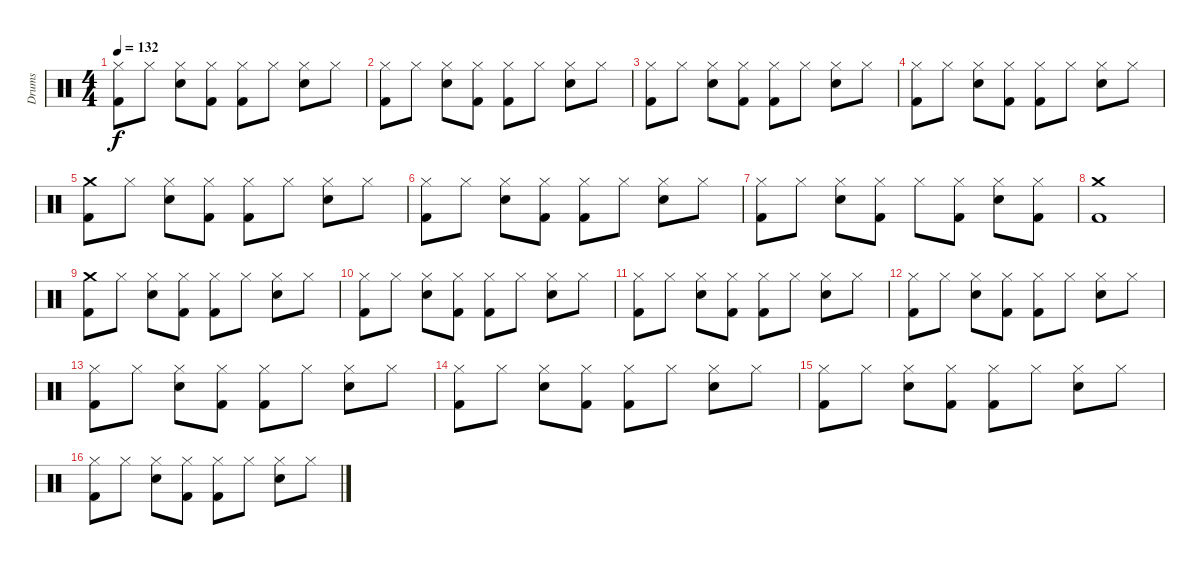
\track ("Drums" "Drums") {instrument percussion}
\staff {score}
\articulation defaults
\ts (4 4)
\tempo 132
\clef neutral
\ks c
("Hi-Hat (closed)" "Kick (hit) 2").8{dy f} "Hi-Hat (closed)".8 ("Hi-Hat (closed)" "Snare (hit) 2").8 ("Hi-Hat (closed)" "Kick (hit) 2").8 ("Hi-Hat (closed)" "Kick (hit) 2").8 "Hi-Hat (closed)".8 ("Hi-Hat (closed)" "Snare (hit) 2").8 "Hi-Hat (closed)".8 |
("Hi-Hat (closed)" "Kick (hit) 2").8 "Hi-Hat (closed)".8 ("Hi-Hat (closed)" "Snare (hit) 2").8 ("Hi-Hat (closed)" "Kick (hit) 2").8 ("Hi-Hat (closed)" "Kick (hit) 2").8 "Hi-Hat (closed)".8 ("Hi-Hat (closed)" "Snare (hit) 2").8 "Hi-Hat (closed)".8 |
("Hi-Hat (closed)" "Kick (hit) 2").8 "Hi-Hat (closed)".8 ("Hi-Hat (closed)" "Snare (hit) 2").8 ("Hi-Hat (closed)" "Kick (hit) 2").8 ("Hi-Hat (closed)" "Kick (hit) 2").8 "Hi-Hat (closed)".8 ("Hi-Hat (closed)" "Snare (hit) 2").8 "Hi-Hat (closed)".8 |
("Hi-Hat (closed)" "Kick (hit) 2").8 "Hi-Hat (closed)".8 ("Hi-Hat (closed)" "Snare (hit) 2").8 ("Hi-Hat (closed)" "Kick (hit) 2").8 ("Hi-Hat (closed)" "Kick (hit) 2").8 "Hi-Hat (closed)".8 ("Hi-Hat (closed)" "Snare (hit) 2").8 "Hi-Hat (closed)".8 |
("Crash medium (hit)" "Kick (hit) 2").8 "Hi-Hat (closed)".8 ("Hi-Hat (closed)" "Snare (hit) 2").8 ("Hi-Hat (closed)" "Kick (hit) 2").8 ("Hi-Hat (closed)" "Kick (hit) 2").8 "Hi-Hat (closed)".8 ("Hi-Hat (closed)" "Snare (hit) 2").8 "Hi-Hat (closed)".8 |
("Hi-Hat (closed)" "Kick (hit) 2").8 "Hi-Hat (closed)".8 ("Hi-Hat (closed)" "Snare (hit) 2").8 ("Hi-Hat (closed)" "Kick (hit) 2").8 ("Hi-Hat (closed)" "Kick (hit) 2").8 "Hi-Hat (closed)".8 ("Hi-Hat (closed)" "Snare (hit) 2").8 "Hi-Hat (closed)".8 |
("Hi-Hat (closed)" "Kick (hit) 2").8 "Hi-Hat (closed)".8 ("Hi-Hat (closed)" "Snare (hit) 2").8 ("Hi-Hat (closed)" "Kick (hit) 2").8 "Hi-Hat (closed)".8 ("Hi-Hat (closed)" "Kick (hit) 2").8 ("Hi-Hat (closed)" "Snare (hit) 2").8 ("Hi-Hat (closed)" "Kick (hit) 2").8 |
("Crash medium (hit)" "Kick (hit) 2").1 |
("Crash medium (hit)" "Kick (hit) 2").8 "Hi-Hat (closed)".8 ("Hi-Hat (closed)" "Snare (hit) 2").8 ("Hi-Hat (closed)" "Kick (hit) 2").8 ("Hi-Hat (closed)" "Kick (hit) 2").8 "Hi-Hat (closed)".8 ("Hi-Hat (closed)" "Snare (hit) 2").8 "Hi-Hat (closed)".8 |
("Hi-Hat (closed)" "Kick (hit) 2").8 "Hi-Hat (closed)".8 ("Hi-Hat (closed)" "Snare (hit) 2").8 ("Hi-Hat (closed)" "Kick (hit) 2").8 ("Hi-Hat (closed)" "Kick (hit) 2").8 "Hi-Hat (closed)".8 ("Hi-Hat (closed)" "Snare (hit) 2").8 "Hi-Hat (closed)".8 |
("Hi-Hat (closed)" "Kick (hit) 2").8 "Hi-Hat (closed)".8 ("Hi-Hat (closed)" "Snare (hit) 2").8 ("Hi-Hat (closed)" "Kick (hit) 2").8 ("Hi-Hat (closed)" "Kick (hit) 2").8 "Hi-Hat (closed)".8 ("Hi-Hat (closed)" "Snare (hit) 2").8 "Hi-Hat (closed)".8 |
("Hi-Hat (closed)" "Kick (hit) 2").8 "Hi-Hat (closed)".8 ("Hi-Hat (closed)" "Snare (hit) 2").8 ("Hi-Hat (closed)" "Kick (hit) 2").8 ("Hi-Hat (closed)" "Kick (hit) 2").8 "Hi-Hat (closed)".8 ("Hi-Hat (closed)" "Snare (hit) 2").8 "Hi-Hat (closed)".8 |
("Hi-Hat (closed)" "Kick (hit) 2").8 "Hi-Hat (closed)".8 ("Hi-Hat (closed)" "Snare (hit) 2").8 ("Hi-Hat (closed)" "Kick (hit) 2").8 ("Hi-Hat (closed)" "Kick (hit) 2").8 "Hi-Hat (closed)".8 ("Hi-Hat (closed)" "Snare (hit) 2").8 "Hi-Hat (closed)".8 |
("Hi-Hat (closed)" "Kick (hit) 2").8 "Hi-Hat (closed)".8 ("Hi-Hat (closed)" "Snare (hit) 2").8 ("Hi-Hat (closed)" "Kick (hit) 2").8 ("Hi-Hat (closed)" "Kick (hit) 2").8 "Hi-Hat (closed)".8 ("Hi-Hat (closed)" "Snare (hit) 2").8 "Hi-Hat (closed)".8 |
("Hi-Hat (closed)" "Kick (hit) 2").8 "Hi-Hat (closed)".8 ("Hi-Hat (closed)" "Snare (hit) 2").8 ("Hi-Hat (closed)" "Kick (hit) 2").8 ("Hi-Hat (closed)" "Kick (hit) 2").8 "Hi-Hat (closed)".8 ("Hi-Hat (closed)" "Snare (hit) 2").8 "Hi-Hat (closed)".8 |
("Hi-Hat (closed)" "Kick (hit) 2").8 "Hi-Hat (closed)".8 ("Hi-Hat (closed)" "Snare (hit) 2").8 ("Hi-Hat (closed)" "Kick (hit) 2").8 ("Hi-Hat (closed)" "Kick (hit) 2").8 "Hi-Hat (closed)".8 ("Hi-Hat (closed)" "Snare (hit) 2").8 "Hi-Hat (closed)".8
